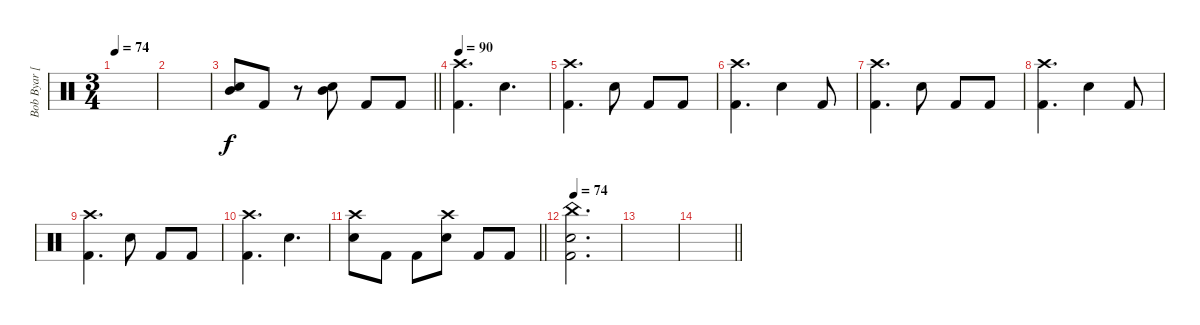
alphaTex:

\track ("Bob Byar [Drums]" "Bob Byar [") {instrument percussion}
\staff {score}
\articulation defaults
\ts (3 4)
\tempo 74
\clef neutral
\ks c
|
|
\barLineRight lightlight
("Electric Snare (hit)" "Mid Tom (hit)").8 "Kick (hit) 2".8 r.8 ("Electric Snare (hit)" "Mid Tom (hit)").8 "Kick (hit) 2".8 "Kick (hit) 2".8 |
\tempo 90
("Crash high (hit)" "Kick (hit) 2").4{d} "Electric Snare (hit)".4{d} |
("Crash high (hit)" "Kick (hit) 2").4{d} "Electric Snare (hit)".8 "Kick (hit) 2".8 "Kick (hit) 2".8 |
("Crash high (hit)" "Kick (hit) 2").4{d} "Electric Snare (hit)".4 "Kick (hit) 2".8 |
("Crash high (hit)" "Kick (hit) 2").4{d} "Electric Snare (hit)".8 "Kick (hit) 2".8 "Kick (hit) 2".8 |
("Crash high (hit)" "Kick (hit) 2").4{d} "Electric Snare (hit)".4 "Kick (hit) 2".8 |
("Crash high (hit)" "Kick (hit) 2").4{d} "Electric Snare (hit)".8 "Kick (hit) 2".8 "Kick (hit) 2".8 |
("Crash high (hit)" "Kick (hit) 2").4{d} "Electric Snare (hit)".4{d} |
\barLineRight lightlight
("Crash high (hit)" "Electric Snare (hit)").8 "Kick (hit) 2".8 "Kick (hit) 2".8 ("Crash high (hit)" "Electric Snare (hit)").8 "Kick (hit) 2".8 "Kick (hit) 2".8 |
\tempo 74
("China (hit)" "Electric Snare (hit)" "Kick (hit) 2").2{d} |
|
\barLineRight lightlight
